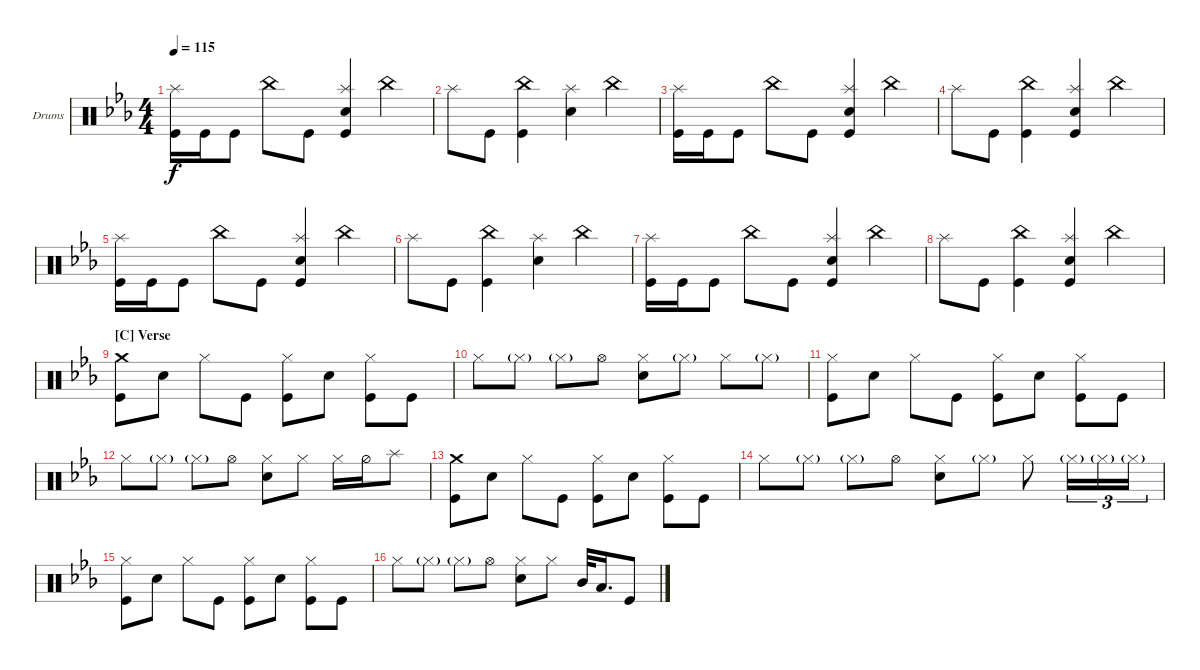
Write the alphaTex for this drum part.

\bracketExtendMode groupsimilarinstruments
\firstSystemTrackNameOrientation horizontal
\otherSystemsTrackNameOrientation horizontal
\track ("Drumkit" "Drums") {instrument percussion}
\staff {score}
\articulation defaults
\ts (4 4)
\tempo 115
\clef neutral
\ks cminor
("Kick (hit)" "Splash (hit)").16{dy f} "Kick (hit)".16 "Kick (hit)".8 "China (hit)".8 "Kick (hit)".8 ("Snare (hit) 2" "Kick (hit)" "Splash (hit)").4 "China (hit)".4 |
"Splash (hit)".8 "Kick (hit)".8 ("Kick (hit)" "China (hit)").4 ("Splash (hit)" "Snare (hit) 2").4 "China (hit)".4 |
("Kick (hit)" "Splash (hit)").16 "Kick (hit)".16 "Kick (hit)".8 "China (hit)".8 "Kick (hit)".8 ("Snare (hit) 2" "Kick (hit)" "Splash (hit)").4 "China (hit)".4 |
"Splash (hit)".8 "Kick (hit)".8 ("Kick (hit)" "China (hit)").4 ("Kick (hit)" "Splash (hit)" "Snare (hit) 2").4 "China (hit)".4 |
("Kick (hit)" "Splash (hit)").16 "Kick (hit)".16 "Kick (hit)".8 "China (hit)".8 "Kick (hit)".8 ("Snare (hit) 2" "Kick (hit)" "Splash (hit)").4 "China (hit)".4 |
"Splash (hit)".8 "Kick (hit)".8 ("Kick (hit)" "China (hit)").4 ("Splash (hit)" "Snare (hit) 2").4 "China (hit)".4 |
("Kick (hit)" "Splash (hit)").16 "Kick (hit)".16 "Kick (hit)".8 "China (hit)".8 "Kick (hit)".8 ("Snare (hit) 2" "Kick (hit)" "Splash (hit)").4 "China (hit)".4 |
"Splash (hit)".8 "Kick (hit)".8 ("Kick (hit)" "China (hit)").4 ("Kick (hit)" "Splash (hit)" "Snare (hit) 2").4 "China (hit)".4 |
\section ("C" "Verse")
("Kick (hit)" "Crash medium (hit)").8 "Snare (hit) 2".8 "Hi-Hat (closed)".8 "Kick (hit)".8 ("Kick (hit)" "Hi-Hat (closed)").8 "Snare (hit) 2".8 ("Kick (hit)" "Hi-Hat (closed)").8 "Kick (hit)".8 |
"Hi-Hat (closed)".8 "Hi-Hat (closed)"{g}.8 "Hi-Hat (closed)"{g}.8 "Hi-Hat (open)".8 ("Snare (hit) 2" "Hi-Hat (closed)").8 "Hi-Hat (closed)"{g}.8 "Hi-Hat (closed)".8 "Hi-Hat (closed)"{g}.8 |
("Kick (hit)" "Hi-Hat (closed)").8 "Snare (hit) 2".8 "Hi-Hat (closed)".8 "Kick (hit)".8 ("Kick (hit)" "Hi-Hat (closed)").8 "Snare (hit) 2".8 ("Kick (hit)" "Hi-Hat (closed)").8 "Kick (hit)".8 |
"Hi-Hat (closed)".8 "Hi-Hat (closed)"{g}.8 "Hi-Hat (closed)"{g}.8 "Hi-Hat (open)".8 ("Snare (hit) 2" "Hi-Hat (closed)").8 "Hi-Hat (closed)".8 "Hi-Hat (closed)".16 "Hi-Hat (half)".16 "Splash (hit)".8 |
("Kick (hit)" "Crash medium (hit)").8 "Snare (hit) 2".8 "Hi-Hat (closed)".8 "Kick (hit)".8 ("Kick (hit)" "Hi-Hat (closed)").8 "Snare (hit) 2".8 ("Kick (hit)" "Hi-Hat (closed)").8 "Kick (hit)".8 |
"Hi-Hat (closed)".8 "Hi-Hat (closed)"{g}.8 "Hi-Hat (closed)"{g}.8 "Hi-Hat (open)".8 ("Snare (hit) 2" "Hi-Hat (closed)").8 "Hi-Hat (closed)"{g}.8 "Hi-Hat (closed)".8 "Hi-Hat (closed)"{g}.16{tu (3 2)} "Hi-Hat (closed)"{g}.16{tu (3 2)} "Hi-Hat (closed)"{g}.16{tu (3 2)} |
("Kick (hit)" "Hi-Hat (closed)").8 "Snare (hit) 2".8 "Hi-Hat (closed)".8 "Kick (hit)".8 ("Kick (hit)" "Hi-Hat (closed)").8 "Snare (hit) 2".8 ("Kick (hit)" "Hi-Hat (closed)").8 "Kick (hit)".8 |
"Hi-Hat (closed)".8 "Hi-Hat (closed)"{g}.8 "Hi-Hat (closed)"{g}.8 "Hi-Hat (open)".8 ("Snare (hit) 2" "Hi-Hat (closed)").8 "Hi-Hat (closed)".8 "Mid Tom (hit)".32 "Low Tom (hit)".16{d} "Kick (hit)".8
